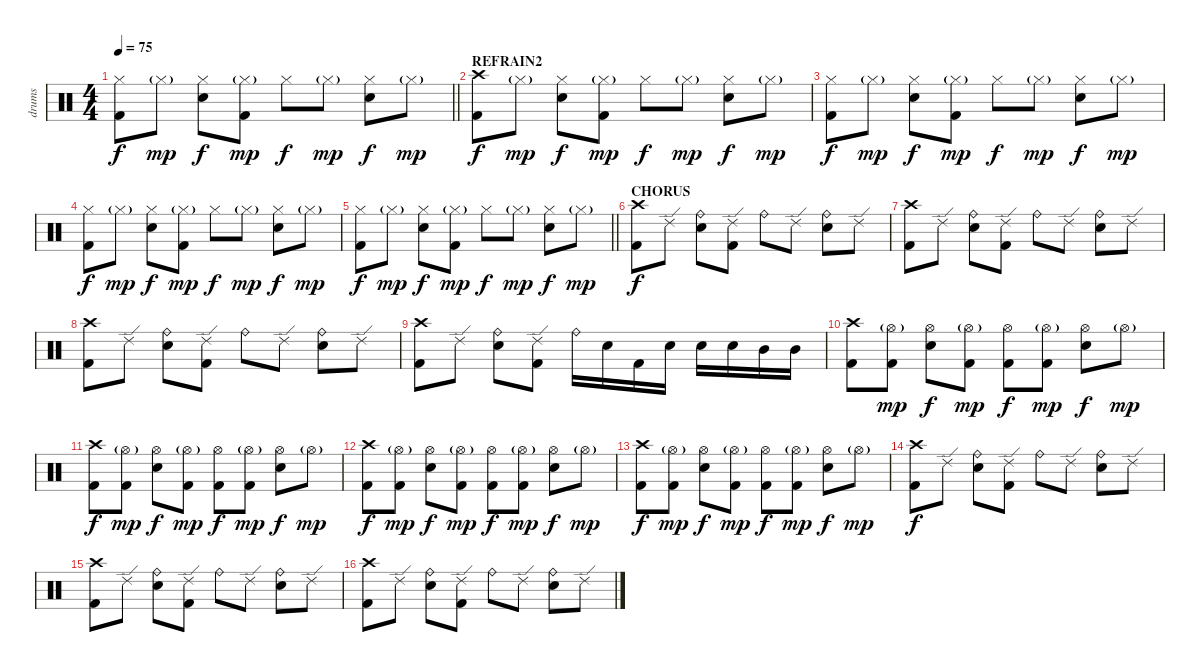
\track ("drums" "drums") {instrument percussion}
\staff
\articulation defaults
\ts (4 4)
\tempo 75
\clef neutral
\barLineRight lightlight
\ks c
("Hi-Hat (closed)" "Kick (hit) 2").8{dy f} "Hi-Hat (closed)"{g}.8{dy mp} ("Hi-Hat (closed)" "Electric Snare (hit)").8{dy f} ("Hi-Hat (closed)"{g} "Kick (hit) 2").8{dy mp} "Hi-Hat (closed)".8{dy f} "Hi-Hat (closed)"{g}.8{dy mp} ("Hi-Hat (closed)" "Electric Snare (hit)").8{dy f} "Hi-Hat (closed)"{g}.8{dy mp} |
\section ("" "REFRAIN2")
("Crash high (hit)" "Kick (hit) 2").8{dy f} "Hi-Hat (closed)"{g}.8{dy mp} ("Hi-Hat (closed)" "Electric Snare (hit)").8{dy f} ("Hi-Hat (closed)"{g} "Kick (hit) 2").8{dy mp} "Hi-Hat (closed)".8{dy f} "Hi-Hat (closed)"{g}.8{dy mp} ("Hi-Hat (closed)" "Electric Snare (hit)").8{dy f} "Hi-Hat (closed)"{g}.8{dy mp} |
("Hi-Hat (closed)" "Kick (hit) 2").8{dy f} "Hi-Hat (closed)"{g}.8{dy mp} ("Hi-Hat (closed)" "Electric Snare (hit)").8{dy f} ("Hi-Hat (closed)"{g} "Kick (hit) 2").8{dy mp} "Hi-Hat (closed)".8{dy f} "Hi-Hat (closed)"{g}.8{dy mp} ("Hi-Hat (closed)" "Electric Snare (hit)").8{dy f} "Hi-Hat (closed)"{g}.8{dy mp} |
("Hi-Hat (closed)" "Kick (hit) 2").8{dy f} "Hi-Hat (closed)"{g}.8{dy mp} ("Hi-Hat (closed)" "Electric Snare (hit)").8{dy f} ("Hi-Hat (closed)"{g} "Kick (hit) 2").8{dy mp} "Hi-Hat (closed)".8{dy f} "Hi-Hat (closed)"{g}.8{dy mp} ("Hi-Hat (closed)" "Electric Snare (hit)").8{dy f} "Hi-Hat (closed)"{g}.8{dy mp} |
\barLineRight lightlight
("Hi-Hat (closed)" "Kick (hit) 2").8{dy f} "Hi-Hat (closed)"{g}.8{dy mp} ("Hi-Hat (closed)" "Electric Snare (hit)").8{dy f} ("Hi-Hat (closed)"{g} "Kick (hit) 2").8{dy mp} "Hi-Hat (closed)".8{dy f} "Hi-Hat (closed)"{g}.8{dy mp} ("Hi-Hat (closed)" "Electric Snare (hit)").8{dy f} "Hi-Hat (closed)"{g}.8{dy mp} |
\section ("" "CHORUS")
("Crash high (hit)" "Kick (hit) 2").8{dy f} "Ride (edge) 2".8 ("Ride (bell)" "Electric Snare (hit)").8 ("Ride (edge) 2" "Kick (hit) 2").8 "Ride (bell)".8 "Ride (edge) 2".8 ("Ride (bell)" "Electric Snare (hit)").8 "Ride (edge) 2".8 |
("Crash high (hit)" "Kick (hit) 2").8 "Ride (edge) 2".8 ("Ride (bell)" "Electric Snare (hit)").8 ("Ride (edge) 2" "Kick (hit) 2").8 "Ride (bell)".8 "Ride (edge) 2".8 ("Ride (bell)" "Electric Snare (hit)").8 "Ride (edge) 2".8 |
("Crash high (hit)" "Kick (hit) 2").8 "Ride (edge) 2".8 ("Ride (bell)" "Electric Snare (hit)").8 ("Ride (edge) 2" "Kick (hit) 2").8 "Ride (bell)".8 "Ride (edge) 2".8 ("Ride (bell)" "Electric Snare (hit)").8 "Ride (edge) 2".8 |
("Crash high (hit)" "Kick (hit) 2").8 "Ride (edge) 2".8 ("Ride (bell)" "Electric Snare (hit)").8 ("Ride (edge) 2" "Kick (hit) 2").8 "Ride (bell)".16 "Electric Snare (hit)".16 "Kick (hit) 2".16 "Electric Snare (hit)".16 "Electric Snare (hit)".16 "Electric Snare (hit)".16 "Mid Tom (hit)".16 "Mid Tom (hit)".16 |
("Crash high (hit)" "Kick (hit) 2").8 ("Hi-Hat (open)"{g} "Kick (hit) 2").8{dy mp} ("Hi-Hat (open)" "Electric Snare (hit)").8{dy f} ("Hi-Hat (open)"{g} "Kick (hit) 2").8{dy mp} ("Hi-Hat (open)" "Kick (hit) 2").8{dy f} ("Hi-Hat (open)"{g} "Kick (hit) 2").8{dy mp} ("Hi-Hat (open)" "Electric Snare (hit)").8{dy f} "Hi-Hat (open)"{g}.8{dy mp} |
("Crash high (hit)" "Kick (hit) 2").8{dy f} ("Hi-Hat (open)"{g} "Kick (hit) 2").8{dy mp} ("Hi-Hat (open)" "Electric Snare (hit)").8{dy f} ("Hi-Hat (open)"{g} "Kick (hit) 2").8{dy mp} ("Hi-Hat (open)" "Kick (hit) 2").8{dy f} ("Hi-Hat (open)"{g} "Kick (hit) 2").8{dy mp} ("Hi-Hat (open)" "Electric Snare (hit)").8{dy f} "Hi-Hat (open)"{g}.8{dy mp} |
("Crash high (hit)" "Kick (hit) 2").8{dy f} ("Hi-Hat (open)"{g} "Kick (hit) 2").8{dy mp} ("Hi-Hat (open)" "Electric Snare (hit)").8{dy f} ("Hi-Hat (open)"{g} "Kick (hit) 2").8{dy mp} ("Hi-Hat (open)" "Kick (hit) 2").8{dy f} ("Hi-Hat (open)"{g} "Kick (hit) 2").8{dy mp} ("Hi-Hat (open)" "Electric Snare (hit)").8{dy f} "Hi-Hat (open)"{g}.8{dy mp} |
("Crash high (hit)" "Kick (hit) 2").8{dy f} ("Hi-Hat (open)"{g} "Kick (hit) 2").8{dy mp} ("Hi-Hat (open)" "Electric Snare (hit)").8{dy f} ("Hi-Hat (open)"{g} "Kick (hit) 2").8{dy mp} ("Hi-Hat (open)" "Kick (hit) 2").8{dy f} ("Hi-Hat (open)"{g} "Kick (hit) 2").8{dy mp} ("Hi-Hat (open)" "Electric Snare (hit)").8{dy f} "Hi-Hat (open)"{g}.8{dy mp} |
("Crash high (hit)" "Kick (hit) 2").8{dy f} "Ride (edge) 2".8 ("Ride (bell)" "Electric Snare (hit)").8 ("Ride (edge) 2" "Kick (hit) 2").8 "Ride (bell)".8 "Ride (edge) 2".8 ("Ride (bell)" "Electric Snare (hit)").8 "Ride (edge) 2".8 |
("Crash high (hit)" "Kick (hit) 2").8 "Ride (edge) 2".8 ("Ride (bell)" "Electric Snare (hit)").8 ("Ride (edge) 2" "Kick (hit) 2").8 "Ride (bell)".8 "Ride (edge) 2".8 ("Ride (bell)" "Electric Snare (hit)").8 "Ride (edge) 2".8 |
("Crash high (hit)" "Kick (hit) 2").8 "Ride (edge) 2".8 ("Ride (bell)" "Electric Snare (hit)").8 ("Ride (edge) 2" "Kick (hit) 2").8 "Ride (bell)".8 "Ride (edge) 2".8 ("Ride (bell)" "Electric Snare (hit)").8 "Ride (edge) 2".8
